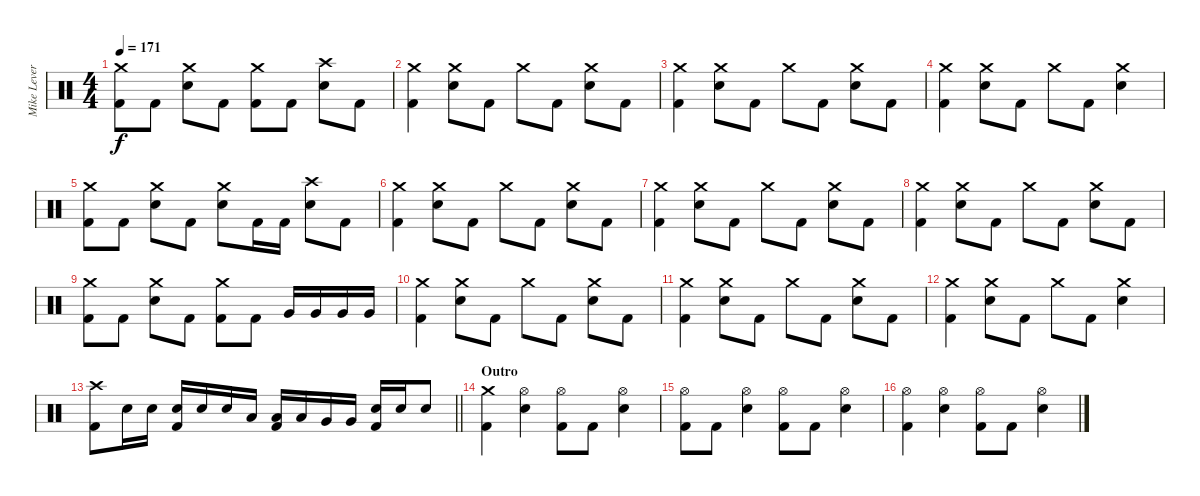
\track ("Mike Leverence - Drums" "Mike Lever") {instrument percussion}
\staff {score}
\articulation defaults
\ts (4 4)
\tempo 171
\clef neutral
\ks c
("Crash medium (hit)" "Kick (hit) 2").8{dy f} "Kick (hit) 2".8 ("Crash medium (hit)" "Electric Snare (hit)").8 "Kick (hit) 2".8 ("Crash medium (hit)" "Kick (hit) 2").8 "Kick (hit) 2".8 ("Crash high (hit)" "Electric Snare (hit)").8 "Kick (hit) 2".8 |
("Crash medium (hit)" "Kick (hit) 2").4 ("Crash medium (hit)" "Electric Snare (hit)").8 "Kick (hit) 2".8 "Crash medium (hit)".8 "Kick (hit) 2".8 ("Crash medium (hit)" "Electric Snare (hit)").8 "Kick (hit) 2".8 |
("Crash medium (hit)" "Kick (hit) 2").4 ("Crash medium (hit)" "Electric Snare (hit)").8 "Kick (hit) 2".8 "Crash medium (hit)".8 "Kick (hit) 2".8 ("Crash medium (hit)" "Electric Snare (hit)").8 "Kick (hit) 2".8 |
("Crash medium (hit)" "Kick (hit) 2").4 ("Crash medium (hit)" "Electric Snare (hit)").8 "Kick (hit) 2".8 "Crash medium (hit)".8 "Kick (hit) 2".8 ("Crash medium (hit)" "Electric Snare (hit)").4 |
("Crash medium (hit)" "Kick (hit) 2").8 "Kick (hit) 2".8 ("Crash medium (hit)" "Electric Snare (hit)").8 "Kick (hit) 2".8 ("Crash medium (hit)" "Electric Snare (hit)").8 "Kick (hit) 2".16 "Kick (hit) 2".16 ("Crash high (hit)" "Electric Snare (hit)").8 "Kick (hit) 2".8 |
("Crash medium (hit)" "Kick (hit) 2").4 ("Crash medium (hit)" "Electric Snare (hit)").8 "Kick (hit) 2".8 "Crash medium (hit)".8 "Kick (hit) 2".8 ("Crash medium (hit)" "Electric Snare (hit)").8 "Kick (hit) 2".8 |
("Crash medium (hit)" "Kick (hit) 2").4 ("Crash medium (hit)" "Electric Snare (hit)").8 "Kick (hit) 2".8 "Crash medium (hit)".8 "Kick (hit) 2".8 ("Crash medium (hit)" "Electric Snare (hit)").8 "Kick (hit) 2".8 |
("Crash medium (hit)" "Kick (hit) 2").4 ("Crash medium (hit)" "Electric Snare (hit)").8 "Kick (hit) 2".8 "Crash medium (hit)".8 "Kick (hit) 2".8 ("Crash medium (hit)" "Electric Snare (hit)").8 "Kick (hit) 2".8 |
("Crash medium (hit)" "Kick (hit) 2").8 "Kick (hit) 2".8 ("Crash medium (hit)" "Electric Snare (hit)").8 "Kick (hit) 2".8 ("Crash medium (hit)" "Kick (hit) 2").8 "Kick (hit) 2".8 "Very Low Tom (hit)".16 "Very Low Tom (hit)".16 "Very Low Tom (hit)".16 "Very Low Tom (hit)".16 |
("Crash medium (hit)" "Kick (hit) 2").4 ("Crash medium (hit)" "Electric Snare (hit)").8 "Kick (hit) 2".8 "Crash medium (hit)".8 "Kick (hit) 2".8 ("Crash medium (hit)" "Electric Snare (hit)").8 "Kick (hit) 2".8 |
("Crash medium (hit)" "Kick (hit) 2").4 ("Crash medium (hit)" "Electric Snare (hit)").8 "Kick (hit) 2".8 "Crash medium (hit)".8 "Kick (hit) 2".8 ("Crash medium (hit)" "Electric Snare (hit)").8 "Kick (hit) 2".8 |
("Crash medium (hit)" "Kick (hit) 2").4 ("Crash medium (hit)" "Electric Snare (hit)").8 "Kick (hit) 2".8 "Crash medium (hit)".8 "Kick (hit) 2".8 ("Crash medium (hit)" "Electric Snare (hit)").4 |
\barLineRight lightlight
("Crash high (hit)" "Kick (hit) 2").8 "Electric Snare (hit)".16 "Electric Snare (hit)".16 ("Electric Snare (hit)" "Kick (hit) 2").16 "Electric Snare (hit)".16 "Electric Snare (hit)".16 "Low Tom (hit)".16 ("Low Tom (hit)" "Kick (hit) 2").16 "Low Tom (hit)".16 "Very Low Tom (hit)".16 "Very Low Tom (hit)".16 ("Electric Snare (hit)" "Kick (hit) 2").16 "Electric Snare (hit)".16 "Electric Snare (hit)".8 |
\section ("" "Outro")
("Crash medium (hit)" "Kick (hit) 2").4 ("Hi-Hat (open)" "Electric Snare (hit)").4 ("Hi-Hat (open)" "Kick (hit) 2").8 "Kick (hit) 2".8 ("Hi-Hat (open)" "Electric Snare (hit)").4 |
("Hi-Hat (open)" "Kick (hit) 2").8 "Kick (hit) 2".8 ("Hi-Hat (open)" "Electric Snare (hit)").4 ("Hi-Hat (open)" "Kick (hit) 2").8 "Kick (hit) 2".8 ("Hi-Hat (open)" "Electric Snare (hit)").4 |
("Hi-Hat (open)" "Kick (hit) 2").4 ("Hi-Hat (open)" "Electric Snare (hit)").4 ("Hi-Hat (open)" "Kick (hit) 2").8 "Kick (hit) 2".8 ("Hi-Hat (open)" "Electric Snare (hit)").4
